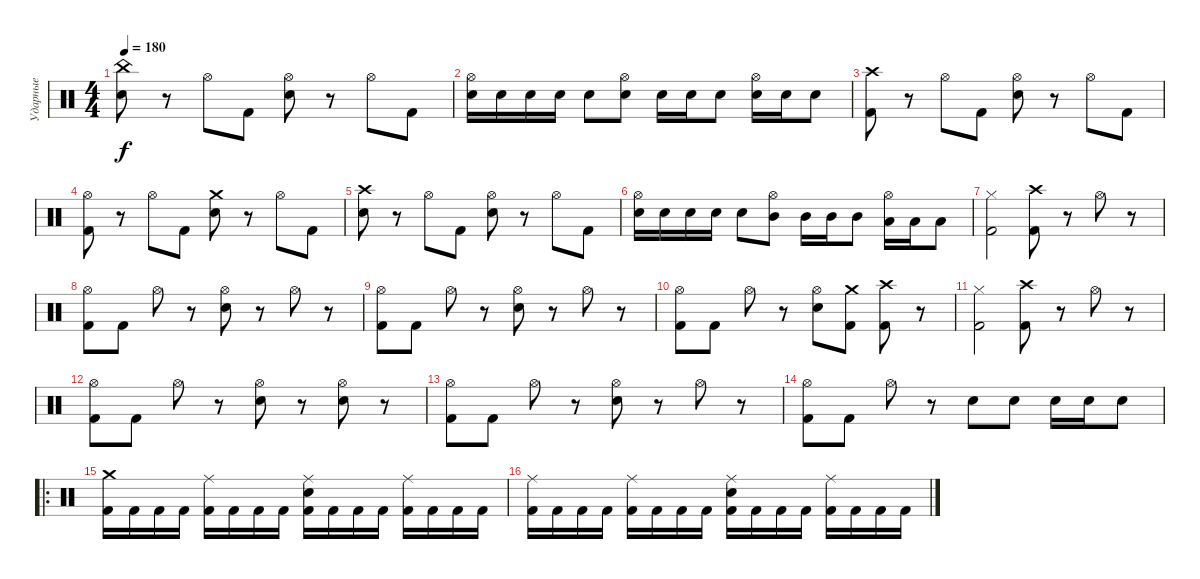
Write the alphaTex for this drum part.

\track ("Ударные" "Ударные") {instrument percussion}
\staff {score}
\articulation defaults
\ts (4 4)
\tempo 180
\clef neutral
\ks c
("Electric Snare (hit)" "China (hit)").8{dy f} r.8 "Hi-Hat (open)".8 "Kick (hit) 2".8 ("Electric Snare (hit)" "Hi-Hat (open)").8 r.8 "Hi-Hat (open)".8 "Kick (hit) 2".8 |
("Electric Snare (hit)" "Hi-Hat (open)").16 "Electric Snare (hit)".16 "Electric Snare (hit)".16 "Electric Snare (hit)".16 "Electric Snare (hit)".8 ("Electric Snare (hit)" "Hi-Hat (open)").8 "Electric Snare (hit)".16 "Electric Snare (hit)".16 "Electric Snare (hit)".8 ("Electric Snare (hit)" "Hi-Hat (open)").16 "Electric Snare (hit)".16 "Electric Snare (hit)".8 |
("Kick (hit) 2" "Crash high (hit)").8 r.8 "Hi-Hat (open)".8 "Kick (hit) 2".8 ("Electric Snare (hit)" "Hi-Hat (open)").8 r.8 "Hi-Hat (open)".8 "Kick (hit) 2".8 |
("Kick (hit) 2" "Hi-Hat (open)").8 r.8 "Hi-Hat (open)".8 "Kick (hit) 2".8 ("Electric Snare (hit)" "Crash medium (hit)").8 r.8 "Hi-Hat (open)".8 "Kick (hit) 2".8 |
("Electric Snare (hit)" "Crash high (hit)").8 r.8 "Hi-Hat (open)".8 "Kick (hit) 2".8 ("Electric Snare (hit)" "Hi-Hat (open)").8 r.8 "Hi-Hat (open)".8 "Kick (hit) 2".8 |
("Electric Snare (hit)" "Hi-Hat (open)").16 "Electric Snare (hit)".16 "Electric Snare (hit)".16 "Electric Snare (hit)".16 "Electric Snare (hit)".8 ("Mid Tom (hit)" "Hi-Hat (open)").8 "Mid Tom (hit)".16 "Mid Tom (hit)".16 "Mid Tom (hit)".8 ("Low Tom (hit)" "Hi-Hat (open)").16 "Low Tom (hit)".16 "Low Tom (hit)".8 |
("Kick (hit) 2" "Hi-Hat (closed)").2 ("Kick (hit) 2" "Crash high (hit)").8 r.8 "Hi-Hat (open)".8 r.8 |
("Kick (hit) 2" "Hi-Hat (open)").8 "Kick (hit) 2".8 "Hi-Hat (open)".8 r.8 ("Electric Snare (hit)" "Hi-Hat (open)").8 r.8 "Hi-Hat (open)".8 r.8 |
("Kick (hit) 2" "Hi-Hat (open)").8 "Kick (hit) 2".8 "Hi-Hat (open)".8 r.8 ("Electric Snare (hit)" "Hi-Hat (open)").8 r.8 "Hi-Hat (open)".8 r.8 |
("Kick (hit) 2" "Hi-Hat (open)").8 "Kick (hit) 2".8 "Hi-Hat (open)".8 r.8 ("Electric Snare (hit)" "Hi-Hat (open)").8 ("Crash medium (hit)" "Kick (hit) 2").8 ("Crash high (hit)" "Kick (hit) 2").8 r.8 |
("Kick (hit) 2" "Hi-Hat (closed)").2 ("Kick (hit) 2" "Crash high (hit)").8 r.8 "Hi-Hat (open)".8 r.8 |
("Kick (hit) 2" "Hi-Hat (open)").8 "Kick (hit) 2".8 "Hi-Hat (open)".8 r.8 ("Electric Snare (hit)" "Hi-Hat (open)").8 r.8 ("Electric Snare (hit)" "Hi-Hat (open)").8 r.8 |
("Kick (hit) 2" "Hi-Hat (open)").8 "Kick (hit) 2".8 "Hi-Hat (open)".8 r.8 ("Electric Snare (hit)" "Hi-Hat (open)").8 r.8 "Hi-Hat (open)".8 r.8 |
("Kick (hit) 2" "Hi-Hat (open)").8 "Kick (hit) 2".8 "Hi-Hat (open)".8 r.8 "Electric Snare (hit)".8 "Electric Snare (hit)".8 "Electric Snare (hit)".16 "Electric Snare (hit)".16 "Electric Snare (hit)".8 |
\ro
("Kick (hit) 2" "Crash medium (hit)").16 "Kick (hit) 2".16 "Kick (hit) 2".16 "Kick (hit) 2".16 ("Kick (hit) 2" "Ride (middle)").16 "Kick (hit) 2".16 "Kick (hit) 2".16 "Kick (hit) 2".16 ("Kick (hit) 2" "Electric Snare (hit)" "Ride (middle)").16 "Kick (hit) 2".16 "Kick (hit) 2".16 "Kick (hit) 2".16 ("Kick (hit) 2" "Ride (middle)").16 "Kick (hit) 2".16 "Kick (hit) 2".16 "Kick (hit) 2".16 |
("Kick (hit) 2" "Ride (middle)").16 "Kick (hit) 2".16 "Kick (hit) 2".16 "Kick (hit) 2".16 ("Kick (hit) 2" "Ride (middle)").16 "Kick (hit) 2".16 "Kick (hit) 2".16 "Kick (hit) 2".16 ("Kick (hit) 2" "Electric Snare (hit)" "Ride (middle)").16 "Kick (hit) 2".16 "Kick (hit) 2".16 "Kick (hit) 2".16 ("Kick (hit) 2" "Ride (middle)").16 "Kick (hit) 2".16 "Kick (hit) 2".16 "Kick (hit) 2".16
